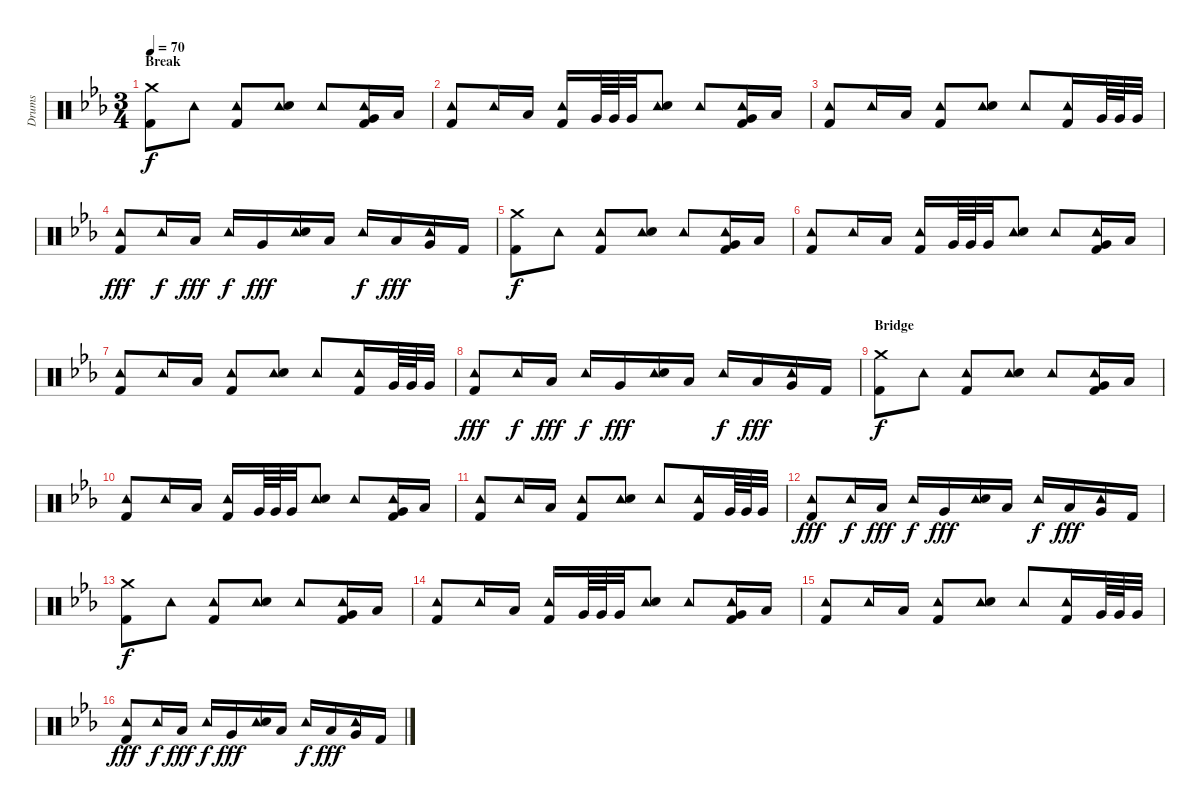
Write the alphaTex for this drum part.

\track ("Drums" "Drums") {instrument percussion}
\staff {score}
\articulation defaults
\ts (3 4)
\section ("" "Break")
\tempo 70
\clef neutral
\ks cminor
("Crash medium (hit)" "Kick (hit) 2").8{dy f} "Tambourine (hit)".8 ("Tambourine (hit)" "Kick (hit) 2").8 ("Tambourine (hit)" "Snare (hit) 2").8 "Tambourine (hit)".8 ("Tambourine (hit)" "Very Low Tom (hit)" "Kick (hit) 2").16 "Low Floor Tom (hit)".16 |
("Tambourine (hit)" "Kick (hit) 2").8 "Tambourine (hit)".16 "Low Floor Tom (hit)".16 ("Tambourine (hit)" "Kick (hit) 2").16 "Very Low Tom (hit)".64 "Very Low Tom (hit)".64 "Very Low Tom (hit)".32 ("Tambourine (hit)" "Snare (hit) 2").8 "Tambourine (hit)".8 ("Tambourine (hit)" "Very Low Tom (hit)" "Kick (hit) 2").16 "Low Floor Tom (hit)".16 |
("Tambourine (hit)" "Kick (hit) 2").8 "Tambourine (hit)".16 "Low Floor Tom (hit)".16 ("Tambourine (hit)" "Kick (hit) 2").8 ("Tambourine (hit)" "Snare (hit) 2").8 "Tambourine (hit)".8 ("Tambourine (hit)" "Kick (hit) 2").16 "Very Low Tom (hit)".64 "Very Low Tom (hit)".64 "Very Low Tom (hit)".32 |
("Tambourine (hit)" "Kick (hit) 2").8{dy fff} "Tambourine (hit)".16{dy f} "Low Floor Tom (hit)".16{dy fff} "Tambourine (hit)".16{dy f} "Very Low Tom (hit)".16{dy fff} ("Tambourine (hit)" "Snare (hit) 2").16 "Low Floor Tom (hit)".16 "Tambourine (hit)".16{dy f} "Low Floor Tom (hit)".16{dy fff} ("Tambourine (hit)" "Very Low Tom (hit)").16 "Kick (hit) 2".16 |
("Crash medium (hit)" "Kick (hit) 2").8{dy f} "Tambourine (hit)".8 ("Tambourine (hit)" "Kick (hit) 2").8 ("Tambourine (hit)" "Snare (hit) 2").8 "Tambourine (hit)".8 ("Tambourine (hit)" "Very Low Tom (hit)" "Kick (hit) 2").16 "Low Floor Tom (hit)".16 |
("Tambourine (hit)" "Kick (hit) 2").8 "Tambourine (hit)".16 "Low Floor Tom (hit)".16 ("Tambourine (hit)" "Kick (hit) 2").16 "Very Low Tom (hit)".64 "Very Low Tom (hit)".64 "Very Low Tom (hit)".32 ("Tambourine (hit)" "Snare (hit) 2").8 "Tambourine (hit)".8 ("Tambourine (hit)" "Very Low Tom (hit)" "Kick (hit) 2").16 "Low Floor Tom (hit)".16 |
("Tambourine (hit)" "Kick (hit) 2").8 "Tambourine (hit)".16 "Low Floor Tom (hit)".16 ("Tambourine (hit)" "Kick (hit) 2").8 ("Tambourine (hit)" "Snare (hit) 2").8 "Tambourine (hit)".8 ("Tambourine (hit)" "Kick (hit) 2").16 "Very Low Tom (hit)".64 "Very Low Tom (hit)".64 "Very Low Tom (hit)".32 |
("Tambourine (hit)" "Kick (hit) 2").8{dy fff} "Tambourine (hit)".16{dy f} "Low Floor Tom (hit)".16{dy fff} "Tambourine (hit)".16{dy f} "Very Low Tom (hit)".16{dy fff} ("Tambourine (hit)" "Snare (hit) 2").16 "Low Floor Tom (hit)".16 "Tambourine (hit)".16{dy f} "Low Floor Tom (hit)".16{dy fff} ("Tambourine (hit)" "Very Low Tom (hit)").16 "Kick (hit) 2".16 |
\section ("" "Bridge")
("Crash medium (hit)" "Kick (hit) 2").8{dy f} "Tambourine (hit)".8 ("Tambourine (hit)" "Kick (hit) 2").8 ("Tambourine (hit)" "Snare (hit) 2").8 "Tambourine (hit)".8 ("Tambourine (hit)" "Very Low Tom (hit)" "Kick (hit) 2").16 "Low Floor Tom (hit)".16 |
("Tambourine (hit)" "Kick (hit) 2").8 "Tambourine (hit)".16 "Low Floor Tom (hit)".16 ("Tambourine (hit)" "Kick (hit) 2").16 "Very Low Tom (hit)".64 "Very Low Tom (hit)".64 "Very Low Tom (hit)".32 ("Tambourine (hit)" "Snare (hit) 2").8 "Tambourine (hit)".8 ("Tambourine (hit)" "Very Low Tom (hit)" "Kick (hit) 2").16 "Low Floor Tom (hit)".16 |
("Tambourine (hit)" "Kick (hit) 2").8 "Tambourine (hit)".16 "Low Floor Tom (hit)".16 ("Tambourine (hit)" "Kick (hit) 2").8 ("Tambourine (hit)" "Snare (hit) 2").8 "Tambourine (hit)".8 ("Tambourine (hit)" "Kick (hit) 2").16 "Very Low Tom (hit)".64 "Very Low Tom (hit)".64 "Very Low Tom (hit)".32 |
("Tambourine (hit)" "Kick (hit) 2").8{dy fff} "Tambourine (hit)".16{dy f} "Low Floor Tom (hit)".16{dy fff} "Tambourine (hit)".16{dy f} "Very Low Tom (hit)".16{dy fff} ("Tambourine (hit)" "Snare (hit) 2").16 "Low Floor Tom (hit)".16 "Tambourine (hit)".16{dy f} "Low Floor Tom (hit)".16{dy fff} ("Tambourine (hit)" "Very Low Tom (hit)").16 "Kick (hit) 2".16 |
("Crash medium (hit)" "Kick (hit) 2").8{dy f} "Tambourine (hit)".8 ("Tambourine (hit)" "Kick (hit) 2").8 ("Tambourine (hit)" "Snare (hit) 2").8 "Tambourine (hit)".8 ("Tambourine (hit)" "Very Low Tom (hit)" "Kick (hit) 2").16 "Low Floor Tom (hit)".16 |
("Tambourine (hit)" "Kick (hit) 2").8 "Tambourine (hit)".16 "Low Floor Tom (hit)".16 ("Tambourine (hit)" "Kick (hit) 2").16 "Very Low Tom (hit)".64 "Very Low Tom (hit)".64 "Very Low Tom (hit)".32 ("Tambourine (hit)" "Snare (hit) 2").8 "Tambourine (hit)".8 ("Tambourine (hit)" "Very Low Tom (hit)" "Kick (hit) 2").16 "Low Floor Tom (hit)".16 |
("Tambourine (hit)" "Kick (hit) 2").8 "Tambourine (hit)".16 "Low Floor Tom (hit)".16 ("Tambourine (hit)" "Kick (hit) 2").8 ("Tambourine (hit)" "Snare (hit) 2").8 "Tambourine (hit)".8 ("Tambourine (hit)" "Kick (hit) 2").16 "Very Low Tom (hit)".64 "Very Low Tom (hit)".64 "Very Low Tom (hit)".32 |
("Tambourine (hit)" "Kick (hit) 2").8{dy fff} "Tambourine (hit)".16{dy f} "Low Floor Tom (hit)".16{dy fff} "Tambourine (hit)".16{dy f} "Very Low Tom (hit)".16{dy fff} ("Tambourine (hit)" "Snare (hit) 2").16 "Low Floor Tom (hit)".16 "Tambourine (hit)".16{dy f} "Low Floor Tom (hit)".16{dy fff} ("Tambourine (hit)" "Very Low Tom (hit)").16 "Kick (hit) 2".16
